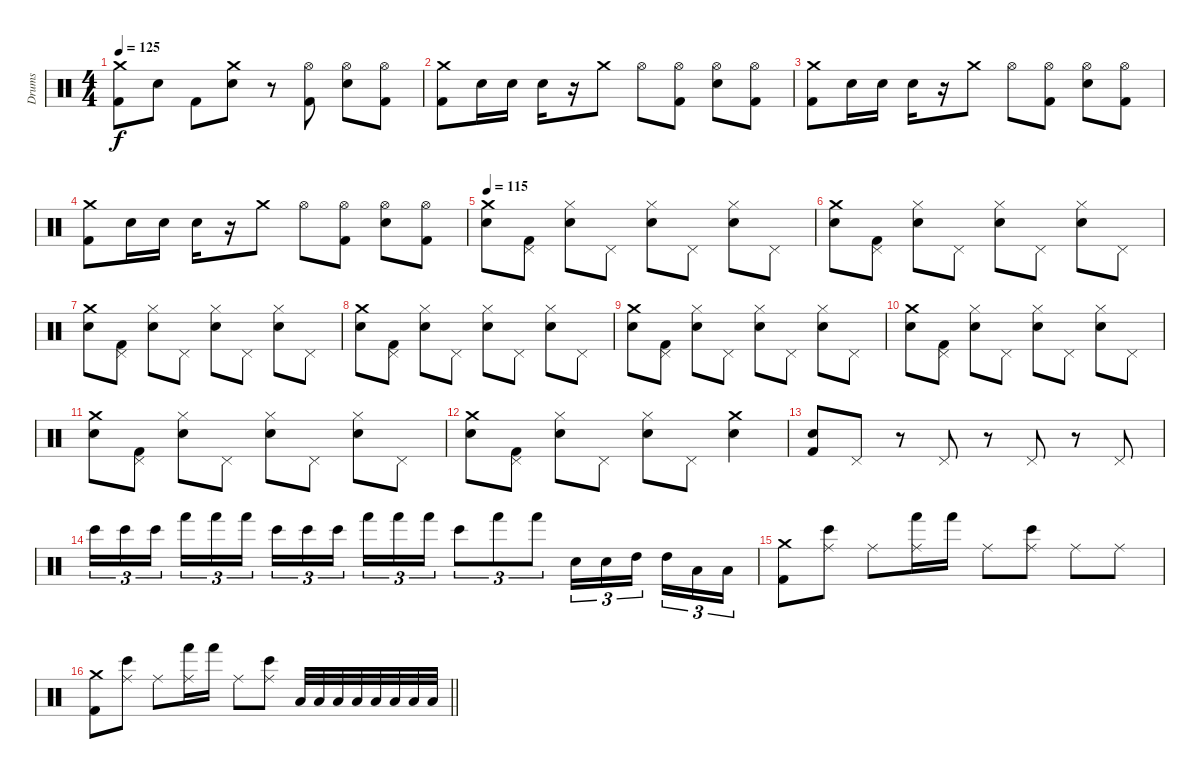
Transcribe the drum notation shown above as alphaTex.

\track ("Drums" "Drums") {instrument percussion}
\staff {score}
\articulation defaults
\ts (4 4)
\tempo 125
\clef neutral
\ks c
("Crash medium (hit)" "Kick (hit) 2").8{dy f} "Electric Snare (hit)".8 "Kick (hit) 2".8 ("Crash medium (hit)" "Electric Snare (hit)").8 r.8 ("Hi-Hat (open)" "Kick (hit) 2").8 ("Hi-Hat (open)" "Electric Snare (hit)").8 ("Hi-Hat (open)" "Kick (hit) 2").8 |
("Crash medium (hit)" "Kick (hit) 2").8 "Electric Snare (hit)".16 "Electric Snare (hit)".16 "Electric Snare (hit)".16 r.16 "Crash medium (hit)".8 "Hi-Hat (open)".8 ("Hi-Hat (open)" "Kick (hit) 2").8 ("Hi-Hat (open)" "Electric Snare (hit)").8 ("Hi-Hat (open)" "Kick (hit) 2").8 |
("Crash medium (hit)" "Kick (hit) 2").8 "Electric Snare (hit)".16 "Electric Snare (hit)".16 "Electric Snare (hit)".16 r.16 "Crash medium (hit)".8 "Hi-Hat (open)".8 ("Hi-Hat (open)" "Kick (hit) 2").8 ("Hi-Hat (open)" "Electric Snare (hit)").8 ("Hi-Hat (open)" "Kick (hit) 2").8 |
("Crash medium (hit)" "Kick (hit) 2").8 "Electric Snare (hit)".16 "Electric Snare (hit)".16 "Electric Snare (hit)".16 r.16 "Crash medium (hit)".8 "Hi-Hat (open)".8 ("Hi-Hat (open)" "Kick (hit) 2").8 ("Hi-Hat (open)" "Electric Snare (hit)").8 ("Hi-Hat (open)" "Kick (hit) 2").8 |
\tempo 115
("Crash medium (hit)" "Electric Snare (hit)").8 ("Pedal Hi-Hat (hit)" "Kick (hit) 2").8 ("Hi-Hat (closed)" "Electric Snare (hit)").8 "Pedal Hi-Hat (hit)".8 ("Hi-Hat (closed)" "Electric Snare (hit)").8 "Pedal Hi-Hat (hit)".8 ("Hi-Hat (closed)" "Electric Snare (hit)").8 "Pedal Hi-Hat (hit)".8 |
("Crash medium (hit)" "Electric Snare (hit)").8 ("Pedal Hi-Hat (hit)" "Kick (hit) 2").8 ("Hi-Hat (closed)" "Electric Snare (hit)").8 "Pedal Hi-Hat (hit)".8 ("Hi-Hat (closed)" "Electric Snare (hit)").8 "Pedal Hi-Hat (hit)".8 ("Hi-Hat (closed)" "Electric Snare (hit)").8 "Pedal Hi-Hat (hit)".8 |
("Crash medium (hit)" "Electric Snare (hit)").8 ("Pedal Hi-Hat (hit)" "Kick (hit) 2").8 ("Hi-Hat (closed)" "Electric Snare (hit)").8 "Pedal Hi-Hat (hit)".8 ("Hi-Hat (closed)" "Electric Snare (hit)").8 "Pedal Hi-Hat (hit)".8 ("Hi-Hat (closed)" "Electric Snare (hit)").8 "Pedal Hi-Hat (hit)".8 |
("Crash medium (hit)" "Electric Snare (hit)").8 ("Pedal Hi-Hat (hit)" "Kick (hit) 2").8 ("Hi-Hat (closed)" "Electric Snare (hit)").8 "Pedal Hi-Hat (hit)".8 ("Hi-Hat (closed)" "Electric Snare (hit)").8 "Pedal Hi-Hat (hit)".8 ("Hi-Hat (closed)" "Electric Snare (hit)").8 "Pedal Hi-Hat (hit)".8 |
("Crash medium (hit)" "Electric Snare (hit)").8 ("Pedal Hi-Hat (hit)" "Kick (hit) 2").8 ("Hi-Hat (closed)" "Electric Snare (hit)").8 "Pedal Hi-Hat (hit)".8 ("Hi-Hat (closed)" "Electric Snare (hit)").8 "Pedal Hi-Hat (hit)".8 ("Hi-Hat (closed)" "Electric Snare (hit)").8 "Pedal Hi-Hat (hit)".8 |
("Crash medium (hit)" "Electric Snare (hit)").8 ("Pedal Hi-Hat (hit)" "Kick (hit) 2").8 ("Hi-Hat (closed)" "Electric Snare (hit)").8 "Pedal Hi-Hat (hit)".8 ("Hi-Hat (closed)" "Electric Snare (hit)").8 "Pedal Hi-Hat (hit)".8 ("Hi-Hat (closed)" "Electric Snare (hit)").8 "Pedal Hi-Hat (hit)".8 |
("Crash medium (hit)" "Electric Snare (hit)").8 ("Pedal Hi-Hat (hit)" "Kick (hit) 2").8 ("Hi-Hat (closed)" "Electric Snare (hit)").8 "Pedal Hi-Hat (hit)".8 ("Hi-Hat (closed)" "Electric Snare (hit)").8 "Pedal Hi-Hat (hit)".8 ("Hi-Hat (closed)" "Electric Snare (hit)").8 "Pedal Hi-Hat (hit)".8 |
("Crash medium (hit)" "Electric Snare (hit)").8 ("Pedal Hi-Hat (hit)" "Kick (hit) 2").8 ("Hi-Hat (closed)" "Electric Snare (hit)").8 "Pedal Hi-Hat (hit)".8 ("Hi-Hat (closed)" "Electric Snare (hit)").8 "Pedal Hi-Hat (hit)".8 ("Crash medium (hit)" "Electric Snare (hit)").4 |
("Electric Snare (hit)" "Kick (hit) 2").8 "Pedal Hi-Hat (hit)".8 r.8 "Pedal Hi-Hat (hit)".8 r.8 "Pedal Hi-Hat (hit)".8 r.8 "Pedal Hi-Hat (hit)".8 |
"Bongo High (hit)".16{tu (3 2)} "Bongo High (hit)".16{tu (3 2)} "Bongo High (hit)".16{tu (3 2) beam splitsecondary} "Hand (hit)".16{tu (3 2)} "Hand (hit)".16{tu (3 2)} "Hand (hit)".16{tu (3 2)} "Bongo High (hit)".16{tu (3 2)} "Bongo High (hit)".16{tu (3 2)} "Bongo High (hit)".16{tu (3 2) beam splitsecondary} "Hand (hit)".16{tu (3 2)} "Hand (hit)".16{tu (3 2)} "Hand (hit)".16{tu (3 2)} "Bongo High (hit)".8{tu (3 2)} "Hand (hit)".8{tu (3 2)} "Hand (hit)".8{tu (3 2)} "Electric Snare (hit)".16{tu (3 2)} "Electric Snare (hit)".16{tu (3 2)} "High Tom (hit)".16{tu (3 2) beam splitsecondary} "High Tom (hit)".16{tu (3 2)} "Low Tom (hit)".16{tu (3 2)} "Low Tom (hit)".16{tu (3 2)} |
("Crash medium (hit)" "Kick (hit) 2").8 ("Ride (middle)" "Bongo High (hit)").8 "Ride (middle)".8 ("Ride (middle)" "Hand (hit)").16 "Hand (hit)".16 "Ride (middle)".8 ("Ride (middle)" "Bongo High (hit)").8 "Ride (middle)".8 "Ride (middle)".8 |
\barLineRight lightlight
("Crash medium (hit)" "Kick (hit) 2").8 ("Ride (middle)" "Bongo High (hit)").8 "Ride (middle)".8 ("Ride (middle)" "Hand (hit)").16 "Hand (hit)".16 "Ride (middle)".8 ("Ride (middle)" "Bongo High (hit)").8 "Low Tom (hit)".32 "Low Tom (hit)".32 "Low Tom (hit)".32 "Low Tom (hit)".32 "Low Tom (hit)".32 "Low Tom (hit)".32 "Low Tom (hit)".32 "Low Tom (hit)".32
